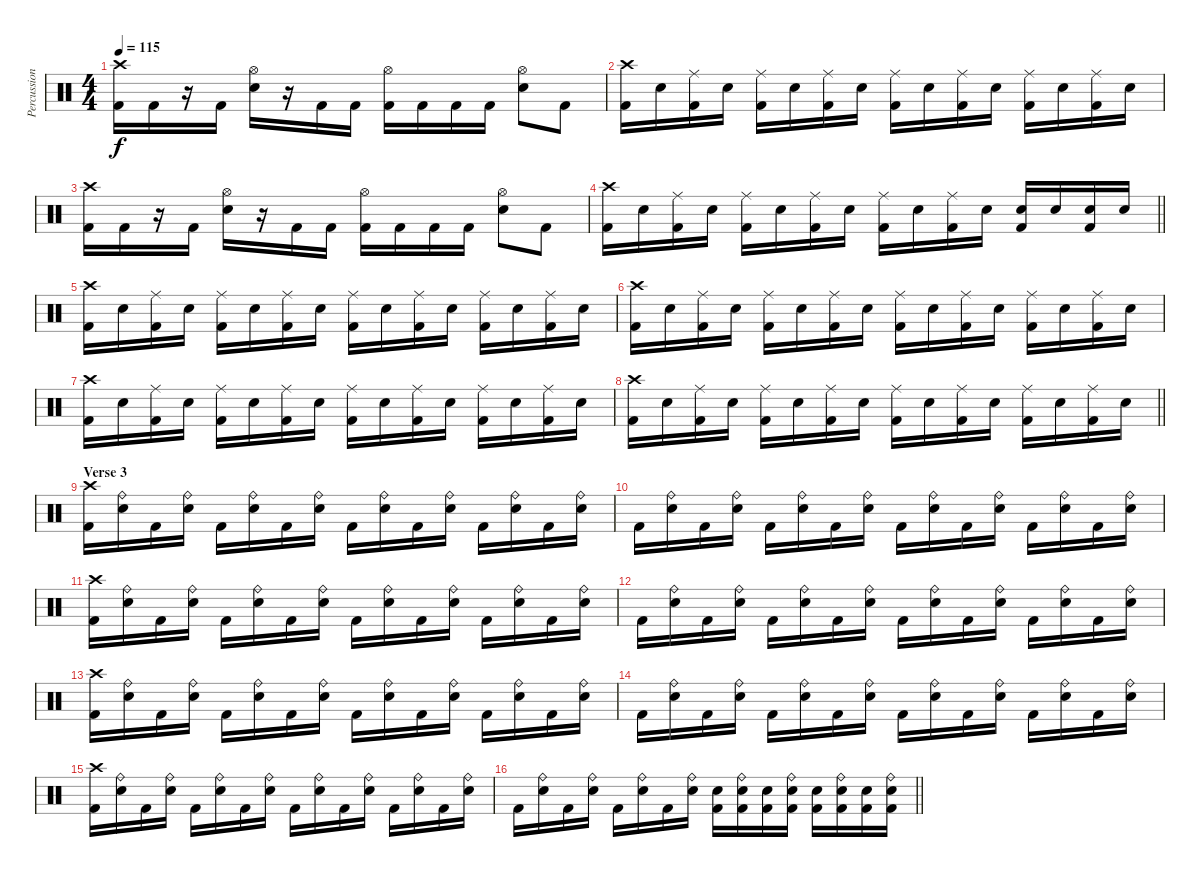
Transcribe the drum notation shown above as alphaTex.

\track ("Percussion" "Percussion") {instrument percussion}
\staff {score}
\articulation defaults
\ts (4 4)
\section ("" "")
\tempo 115
\clef neutral
\ks c
("Crash high (hit)" "Kick (hit) 2").16{dy f} "Kick (hit) 2".16 r.16 "Kick (hit) 2".16 ("Hi-Hat (open)" "Snare (hit) 2").16 r.16 "Kick (hit) 2".16 "Kick (hit) 2".16 ("Hi-Hat (open)" "Kick (hit) 2").16 "Kick (hit) 2".16 "Kick (hit) 2".16 "Kick (hit) 2".16 ("Hi-Hat (open)" "Snare (hit) 2").8 "Kick (hit) 2".8 |
("Crash high (hit)" "Kick (hit) 2").16 "Snare (hit) 2".16 ("Ride (middle)" "Kick (hit) 2").16 "Snare (hit) 2".16 ("Ride (middle)" "Kick (hit) 2").16 "Snare (hit) 2".16 ("Ride (middle)" "Kick (hit) 2").16 "Snare (hit) 2".16 ("Ride (middle)" "Kick (hit) 2").16 "Snare (hit) 2".16 ("Ride (middle)" "Kick (hit) 2").16 "Snare (hit) 2".16 ("Ride (middle)" "Kick (hit) 2").16 "Snare (hit) 2".16 ("Ride (middle)" "Kick (hit) 2").16 "Snare (hit) 2".16 |
("Crash high (hit)" "Kick (hit) 2").16 "Kick (hit) 2".16 r.16 "Kick (hit) 2".16 ("Hi-Hat (open)" "Snare (hit) 2").16 r.16 "Kick (hit) 2".16 "Kick (hit) 2".16 ("Hi-Hat (open)" "Kick (hit) 2").16 "Kick (hit) 2".16 "Kick (hit) 2".16 "Kick (hit) 2".16 ("Hi-Hat (open)" "Snare (hit) 2").8 "Kick (hit) 2".8 |
\barLineRight lightlight
("Crash high (hit)" "Kick (hit) 2").16 "Snare (hit) 2".16 ("Ride (middle)" "Kick (hit) 2").16 "Snare (hit) 2".16 ("Ride (middle)" "Kick (hit) 2").16 "Snare (hit) 2".16 ("Ride (middle)" "Kick (hit) 2").16 "Snare (hit) 2".16 ("Ride (middle)" "Kick (hit) 2").16 "Snare (hit) 2".16 ("Ride (middle)" "Kick (hit) 2").16 "Snare (hit) 2".16 ("Snare (hit) 2" "Kick (hit) 2").16 "Snare (hit) 2".16 ("Snare (hit) 2" "Kick (hit) 2").16 "Snare (hit) 2".16 |
\section ("" "")
("Crash high (hit)" "Kick (hit) 2").16 "Snare (hit) 2".16 ("Ride (middle)" "Kick (hit) 2").16 "Snare (hit) 2".16 ("Ride (middle)" "Kick (hit) 2").16 "Snare (hit) 2".16 ("Ride (middle)" "Kick (hit) 2").16 "Snare (hit) 2".16 ("Ride (middle)" "Kick (hit) 2").16 "Snare (hit) 2".16 ("Ride (middle)" "Kick (hit) 2").16 "Snare (hit) 2".16 ("Ride (middle)" "Kick (hit) 2").16 "Snare (hit) 2".16 ("Ride (middle)" "Kick (hit) 2").16 "Snare (hit) 2".16 |
("Crash high (hit)" "Kick (hit) 2").16 "Snare (hit) 2".16 ("Ride (middle)" "Kick (hit) 2").16 "Snare (hit) 2".16 ("Ride (middle)" "Kick (hit) 2").16 "Snare (hit) 2".16 ("Ride (middle)" "Kick (hit) 2").16 "Snare (hit) 2".16 ("Ride (middle)" "Kick (hit) 2").16 "Snare (hit) 2".16 ("Ride (middle)" "Kick (hit) 2").16 "Snare (hit) 2".16 ("Ride (middle)" "Kick (hit) 2").16 "Snare (hit) 2".16 ("Ride (middle)" "Kick (hit) 2").16 "Snare (hit) 2".16 |
("Crash high (hit)" "Kick (hit) 2").16 "Snare (hit) 2".16 ("Ride (middle)" "Kick (hit) 2").16 "Snare (hit) 2".16 ("Ride (middle)" "Kick (hit) 2").16 "Snare (hit) 2".16 ("Ride (middle)" "Kick (hit) 2").16 "Snare (hit) 2".16 ("Ride (middle)" "Kick (hit) 2").16 "Snare (hit) 2".16 ("Ride (middle)" "Kick (hit) 2").16 "Snare (hit) 2".16 ("Ride (middle)" "Kick (hit) 2").16 "Snare (hit) 2".16 ("Ride (middle)" "Kick (hit) 2").16 "Snare (hit) 2".16 |
\barLineRight lightlight
("Crash high (hit)" "Kick (hit) 2").16 "Snare (hit) 2".16 ("Ride (middle)" "Kick (hit) 2").16 "Snare (hit) 2".16 ("Ride (middle)" "Kick (hit) 2").16 "Snare (hit) 2".16 ("Ride (middle)" "Kick (hit) 2").16 "Snare (hit) 2".16 ("Ride (middle)" "Kick (hit) 2").16 "Snare (hit) 2".16 ("Ride (middle)" "Kick (hit) 2").16 "Snare (hit) 2".16 ("Ride (middle)" "Kick (hit) 2").16 "Snare (hit) 2".16 ("Ride (middle)" "Kick (hit) 2").16 "Snare (hit) 2".16 |
\section ("" "Verse 3")
("Crash high (hit)" "Kick (hit) 2").16 ("Ride (bell)" "Snare (hit) 2").16 "Kick (hit) 2".16 ("Ride (bell)" "Snare (hit) 2").16 "Kick (hit) 2".16 ("Ride (bell)" "Snare (hit) 2").16 "Kick (hit) 2".16 ("Ride (bell)" "Snare (hit) 2").16 "Kick (hit) 2".16 ("Ride (bell)" "Snare (hit) 2").16 "Kick (hit) 2".16 ("Ride (bell)" "Snare (hit) 2").16 "Kick (hit) 2".16 ("Ride (bell)" "Snare (hit) 2").16 "Kick (hit) 2".16 ("Ride (bell)" "Snare (hit) 2").16 |
"Kick (hit) 2".16 ("Ride (bell)" "Snare (hit) 2").16 "Kick (hit) 2".16 ("Ride (bell)" "Snare (hit) 2").16 "Kick (hit) 2".16 ("Ride (bell)" "Snare (hit) 2").16 "Kick (hit) 2".16 ("Ride (bell)" "Snare (hit) 2").16 "Kick (hit) 2".16 ("Ride (bell)" "Snare (hit) 2").16 "Kick (hit) 2".16 ("Ride (bell)" "Snare (hit) 2").16 "Kick (hit) 2".16 ("Ride (bell)" "Snare (hit) 2").16 "Kick (hit) 2".16 ("Ride (bell)" "Snare (hit) 2").16 |
("Crash high (hit)" "Kick (hit) 2").16 ("Ride (bell)" "Snare (hit) 2").16 "Kick (hit) 2".16 ("Ride (bell)" "Snare (hit) 2").16 "Kick (hit) 2".16 ("Ride (bell)" "Snare (hit) 2").16 "Kick (hit) 2".16 ("Ride (bell)" "Snare (hit) 2").16 "Kick (hit) 2".16 ("Ride (bell)" "Snare (hit) 2").16 "Kick (hit) 2".16 ("Ride (bell)" "Snare (hit) 2").16 "Kick (hit) 2".16 ("Ride (bell)" "Snare (hit) 2").16 "Kick (hit) 2".16 ("Ride (bell)" "Snare (hit) 2").16 |
"Kick (hit) 2".16 ("Ride (bell)" "Snare (hit) 2").16 "Kick (hit) 2".16 ("Ride (bell)" "Snare (hit) 2").16 "Kick (hit) 2".16 ("Ride (bell)" "Snare (hit) 2").16 "Kick (hit) 2".16 ("Ride (bell)" "Snare (hit) 2").16 "Kick (hit) 2".16 ("Ride (bell)" "Snare (hit) 2").16 "Kick (hit) 2".16 ("Ride (bell)" "Snare (hit) 2").16 "Kick (hit) 2".16 ("Ride (bell)" "Snare (hit) 2").16 "Kick (hit) 2".16 ("Ride (bell)" "Snare (hit) 2").16 |
("Crash high (hit)" "Kick (hit) 2").16 ("Ride (bell)" "Snare (hit) 2").16 "Kick (hit) 2".16 ("Ride (bell)" "Snare (hit) 2").16 "Kick (hit) 2".16 ("Ride (bell)" "Snare (hit) 2").16 "Kick (hit) 2".16 ("Ride (bell)" "Snare (hit) 2").16 "Kick (hit) 2".16 ("Ride (bell)" "Snare (hit) 2").16 "Kick (hit) 2".16 ("Ride (bell)" "Snare (hit) 2").16 "Kick (hit) 2".16 ("Ride (bell)" "Snare (hit) 2").16 "Kick (hit) 2".16 ("Ride (bell)" "Snare (hit) 2").16 |
"Kick (hit) 2".16 ("Ride (bell)" "Snare (hit) 2").16 "Kick (hit) 2".16 ("Ride (bell)" "Snare (hit) 2").16 "Kick (hit) 2".16 ("Ride (bell)" "Snare (hit) 2").16 "Kick (hit) 2".16 ("Ride (bell)" "Snare (hit) 2").16 "Kick (hit) 2".16 ("Ride (bell)" "Snare (hit) 2").16 "Kick (hit) 2".16 ("Ride (bell)" "Snare (hit) 2").16 "Kick (hit) 2".16 ("Ride (bell)" "Snare (hit) 2").16 "Kick (hit) 2".16 ("Ride (bell)" "Snare (hit) 2").16 |
("Crash high (hit)" "Kick (hit) 2").16 ("Ride (bell)" "Snare (hit) 2").16 "Kick (hit) 2".16 ("Ride (bell)" "Snare (hit) 2").16 "Kick (hit) 2".16 ("Ride (bell)" "Snare (hit) 2").16 "Kick (hit) 2".16 ("Ride (bell)" "Snare (hit) 2").16 "Kick (hit) 2".16 ("Ride (bell)" "Snare (hit) 2").16 "Kick (hit) 2".16 ("Ride (bell)" "Snare (hit) 2").16 "Kick (hit) 2".16 ("Ride (bell)" "Snare (hit) 2").16 "Kick (hit) 2".16 ("Ride (bell)" "Snare (hit) 2").16 |
\barLineRight lightlight "Kick (hit) 2".16
("Ride (bell)" "Snare (hit) 2").16 "Kick (hit) 2".16 ("Ride (bell)" "Snare (hit) 2").16 "Kick (hit) 2".16 ("Ride (bell)" "Snare (hit) 2").16 "Kick (hit) 2".16 ("Ride (bell)" "Snare (hit) 2").16 ("Snare (hit) 2" "Kick (hit) 2").16 ("Ride (bell)" "Snare (hit) 2" "Kick (hit) 2").16 ("Snare (hit) 2" "Kick (hit) 2").16 ("Ride (bell)" "Snare (hit) 2" "Kick (hit) 2").16 ("Snare (hit) 2" "Kick (hit) 2").16 ("Ride (bell)" "Snare (hit) 2" "Kick (hit) 2").16 ("Snare (hit) 2" "Kick (hit) 2").16 ("Ride (bell)" "Snare (hit) 2" "Kick (hit) 2").16
